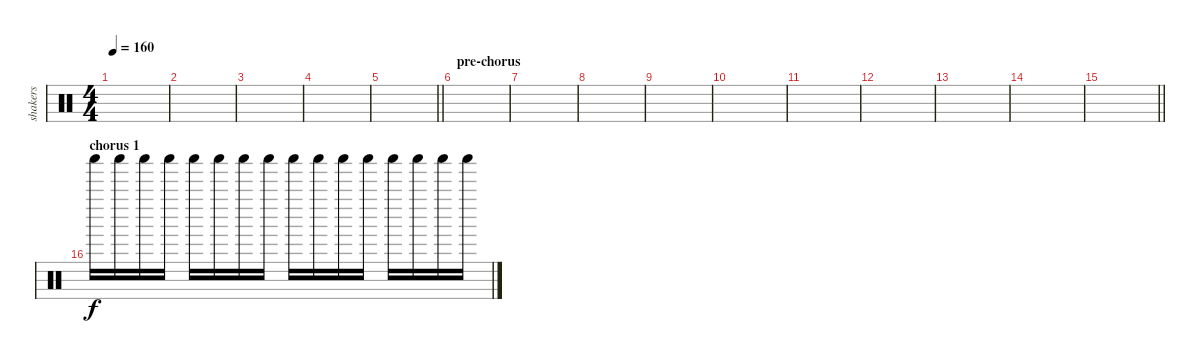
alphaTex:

\track ("shakers" "shakers") {instrument percussion}
\staff {score}
\articulation defaults
\ts (4 4)
\tempo 160
\clef neutral
\ks c
|
|
|
|
\barLineRight lightlight
|
\section ("" "pre-chorus")
|
|
|
|
|
|
|
|
|
\barLineRight lightlight
|
\section ("" "chorus 1")
"Shaker (hit)".16 "Shaker (hit)".16 "Shaker (hit)".16 "Shaker (hit)".16 "Shaker (hit)".16 "Shaker (hit)".16 "Shaker (hit)".16 "Shaker (hit)".16 "Shaker (hit)".16 "Shaker (hit)".16 "Shaker (hit)".16 "Shaker (hit)".16 "Shaker (hit)".16 "Shaker (hit)".16 "Shaker (hit)".16 "Shaker (hit)".16
